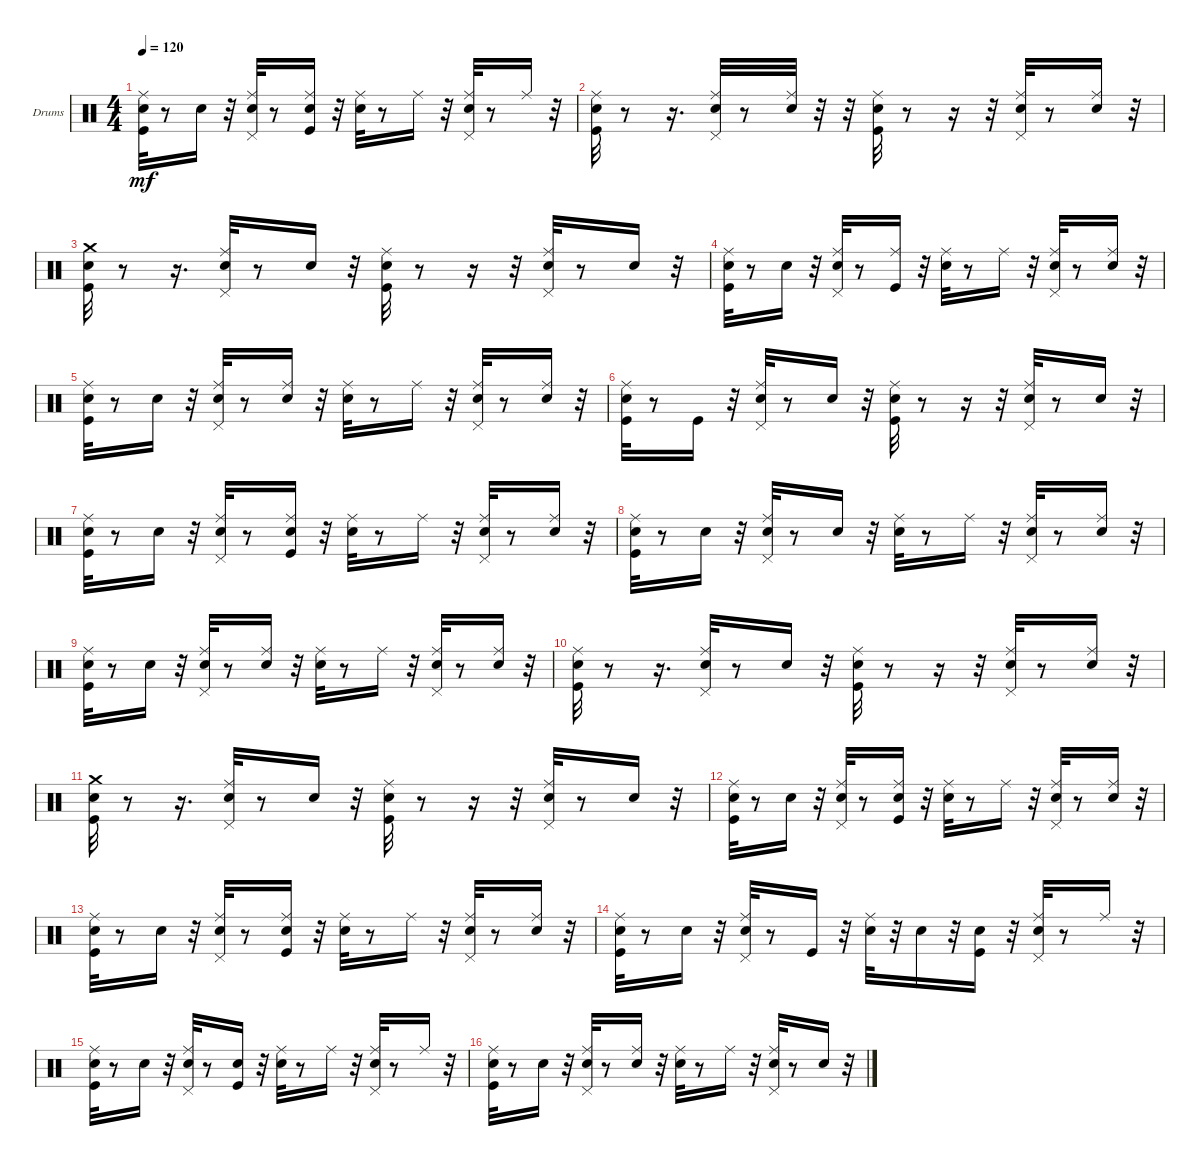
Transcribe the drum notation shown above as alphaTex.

\bracketExtendMode groupsimilarinstruments
\firstSystemTrackNameOrientation horizontal
\otherSystemsTrackNameOrientation horizontal
\track ("Drums   (BB)" "Drums") {instrument percussion}
\staff {score}
\articulation defaults
\ts (4 4)
\tempo 120
\clef neutral
\ks c
("Kick (hit)" "Snare (hit) 2" "Ride (middle)").32{dy mf} r.8 "Snare (hit) 2".16 r.32 ("Snare (hit) 2" "Ride (middle)" "Pedal Hi-Hat (hit)").32 r.8 ("Kick (hit)" "Snare (hit) 2" "Ride (middle)").16 r.32 ("Snare (hit) 2" "Ride (middle)").32 r.8 "Ride (middle)".16 r.32 ("Snare (hit) 2" "Ride (middle)" "Pedal Hi-Hat (hit)").32 r.8 "Ride (middle)".16 r.32 |
("Kick (hit)" "Snare (hit) 2" "Ride (middle)").32 r.8 r.16{d} ("Snare (hit) 2" "Ride (middle)" "Pedal Hi-Hat (hit)").32 r.8 ("Snare (hit) 2" "Ride (middle)").32 r.32 r.32 ("Kick (hit)" "Snare (hit) 2" "Ride (middle)").32 r.8 r.16 r.32 ("Snare (hit) 2" "Ride (middle)" "Pedal Hi-Hat (hit)").32 r.8 ("Snare (hit) 2" "Ride (middle)").16 r.32 |
("Kick (hit)" "Snare (hit) 2" "Crash medium (hit)").32 r.8 r.16{d} ("Snare (hit) 2" "Ride (middle)" "Pedal Hi-Hat (hit)").32 r.8 "Snare (hit) 2".16 r.32 ("Kick (hit)" "Snare (hit) 2" "Ride (middle)").32 r.8 r.16 r.32 ("Snare (hit) 2" "Ride (middle)" "Pedal Hi-Hat (hit)").32 r.8 "Snare (hit) 2".16 r.32 |
("Kick (hit)" "Snare (hit) 2" "Ride (middle)").32 r.8 "Snare (hit) 2".16 r.32 ("Snare (hit) 2" "Ride (middle)" "Pedal Hi-Hat (hit)").32 r.8 ("Kick (hit)" "Ride (middle)").16 r.32 ("Snare (hit) 2" "Ride (middle)").32 r.8 "Ride (middle)".16 r.32 ("Snare (hit) 2" "Ride (middle)" "Pedal Hi-Hat (hit)").32 r.8 ("Snare (hit) 2" "Ride (middle)").16 r.32 |
("Kick (hit)" "Snare (hit) 2" "Ride (middle)").32 r.8 "Snare (hit) 2".16 r.32 ("Snare (hit) 2" "Ride (middle)" "Pedal Hi-Hat (hit)").32 r.8 ("Snare (hit) 2" "Ride (middle)").16 r.32 ("Snare (hit) 2" "Ride (middle)").32 r.8 "Ride (middle)".16 r.32 ("Snare (hit) 2" "Ride (middle)" "Pedal Hi-Hat (hit)").32 r.8 ("Snare (hit) 2" "Ride (middle)").16 r.32 |
("Kick (hit)" "Snare (hit) 2" "Ride (middle)").32 r.8 "Kick (hit)".16 r.32 ("Snare (hit) 2" "Ride (middle)" "Pedal Hi-Hat (hit)").32 r.8 "Snare (hit) 2".16 r.32 ("Kick (hit)" "Snare (hit) 2" "Ride (middle)").32 r.8 r.16 r.32 ("Snare (hit) 2" "Ride (middle)" "Pedal Hi-Hat (hit)").32 r.8 "Snare (hit) 2".16 r.32 |
("Kick (hit)" "Snare (hit) 2" "Ride (middle)").32 r.8 "Snare (hit) 2".16 r.32 ("Snare (hit) 2" "Ride (middle)" "Pedal Hi-Hat (hit)").32 r.8 ("Kick (hit)" "Snare (hit) 2" "Ride (middle)").16 r.32 ("Snare (hit) 2" "Ride (middle)").32 r.8 "Ride (middle)".16 r.32 ("Snare (hit) 2" "Ride (middle)" "Pedal Hi-Hat (hit)").32 r.8 ("Snare (hit) 2" "Ride (middle)").16 r.32 |
("Kick (hit)" "Snare (hit) 2" "Ride (middle)").32 r.8 "Snare (hit) 2".16 r.32 ("Snare (hit) 2" "Ride (middle)" "Pedal Hi-Hat (hit)").32 r.8 "Snare (hit) 2".16 r.32 ("Snare (hit) 2" "Ride (middle)").32 r.8 "Ride (middle)".16 r.32 ("Snare (hit) 2" "Ride (middle)" "Pedal Hi-Hat (hit)").32 r.8 ("Snare (hit) 2" "Ride (middle)").16 r.32 |
("Kick (hit)" "Snare (hit) 2" "Ride (middle)").32 r.8 "Snare (hit) 2".16 r.32 ("Snare (hit) 2" "Ride (middle)" "Pedal Hi-Hat (hit)").32 r.8 ("Snare (hit) 2" "Ride (middle)").16 r.32 ("Snare (hit) 2" "Ride (middle)").32 r.8 "Ride (middle)".16 r.32 ("Snare (hit) 2" "Ride (middle)" "Pedal Hi-Hat (hit)").32 r.8 ("Snare (hit) 2" "Ride (middle)").16 r.32 |
("Kick (hit)" "Snare (hit) 2" "Ride (middle)").32 r.8 r.16{d} ("Snare (hit) 2" "Ride (middle)" "Pedal Hi-Hat (hit)").32 r.8 "Snare (hit) 2".16 r.32 ("Kick (hit)" "Snare (hit) 2" "Ride (middle)").32 r.8 r.16 r.32 ("Snare (hit) 2" "Ride (middle)" "Pedal Hi-Hat (hit)").32 r.8 ("Snare (hit) 2" "Ride (middle)").16 r.32 |
("Kick (hit)" "Snare (hit) 2" "Crash medium (hit)").32 r.8 r.16{d} ("Snare (hit) 2" "Ride (middle)" "Pedal Hi-Hat (hit)").32 r.8 "Snare (hit) 2".16 r.32 ("Kick (hit)" "Snare (hit) 2" "Ride (middle)").32 r.8 r.16 r.32 ("Snare (hit) 2" "Ride (middle)" "Pedal Hi-Hat (hit)").32 r.8 "Snare (hit) 2".16 r.32 |
("Kick (hit)" "Snare (hit) 2" "Ride (middle)").32 r.8 "Snare (hit) 2".16 r.32 ("Snare (hit) 2" "Ride (middle)" "Pedal Hi-Hat (hit)").32 r.8 ("Kick (hit)" "Snare (hit) 2" "Ride (middle)").16 r.32 ("Snare (hit) 2" "Ride (middle)").32 r.8 "Ride (middle)".16 r.32 ("Snare (hit) 2" "Ride (middle)" "Pedal Hi-Hat (hit)").32 r.8 ("Snare (hit) 2" "Ride (middle)").16 r.32 |
("Kick (hit)" "Snare (hit) 2" "Ride (middle)").32 r.8 "Snare (hit) 2".16 r.32 ("Snare (hit) 2" "Ride (middle)" "Pedal Hi-Hat (hit)").32 r.8 ("Kick (hit)" "Snare (hit) 2" "Ride (middle)").16 r.32 ("Snare (hit) 2" "Ride (middle)").32 r.8 "Ride (middle)".16 r.32 ("Snare (hit) 2" "Ride (middle)" "Pedal Hi-Hat (hit)").32 r.8 ("Snare (hit) 2" "Ride (middle)").16 r.32 |
("Kick (hit)" "Snare (hit) 2" "Ride (middle)").32 r.8 "Snare (hit) 2".16 r.32 ("Snare (hit) 2" "Ride (middle)" "Pedal Hi-Hat (hit)").32 r.8 "Kick (hit)".16 r.32 ("Snare (hit) 2" "Ride (middle)").32 r.32 "Snare (hit) 2".16 r.32 ("Kick (hit)" "Snare (hit) 2").16 r.32 ("Snare (hit) 2" "Ride (middle)" "Pedal Hi-Hat (hit)").32 r.8 "Ride (middle)".16 r.32 |
("Kick (hit)" "Snare (hit) 2" "Ride (middle)").32 r.8 "Snare (hit) 2".16 r.32 ("Snare (hit) 2" "Ride (middle)" "Pedal Hi-Hat (hit)").32 r.8 ("Kick (hit)" "Snare (hit) 2").16 r.32 ("Snare (hit) 2" "Ride (middle)").32 r.8 "Ride (middle)".16 r.32 ("Snare (hit) 2" "Ride (middle)" "Pedal Hi-Hat (hit)").32 r.8 "Ride (middle)".16 r.32 |
("Kick (hit)" "Snare (hit) 2" "Ride (middle)").32 r.8 "Snare (hit) 2".16 r.32 ("Snare (hit) 2" "Ride (middle)" "Pedal Hi-Hat (hit)").32 r.8 ("Snare (hit) 2" "Ride (middle)").16 r.32 ("Snare (hit) 2" "Ride (middle)").32 r.8 "Ride (middle)".16 r.32 ("Snare (hit) 2" "Ride (middle)" "Pedal Hi-Hat (hit)").32 r.8 "Snare (hit) 2".16 r.32
